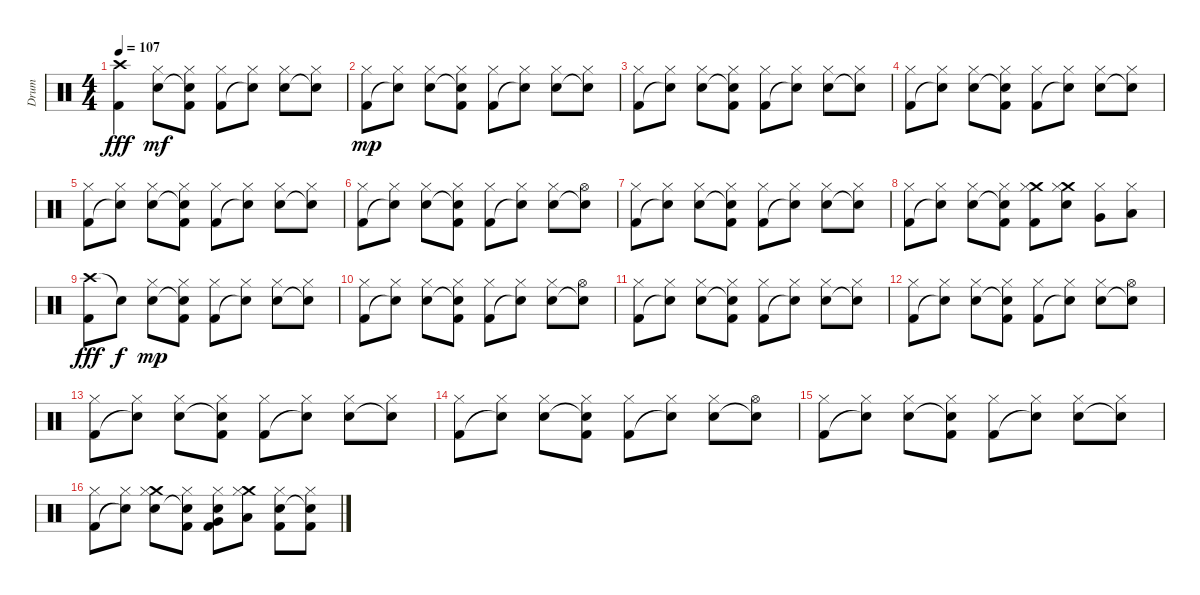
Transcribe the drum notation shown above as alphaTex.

\track ("Drum" "Drum") {instrument percussion}
\staff {score}
\articulation defaults
\ts (4 4)
\section ("" "")
\tempo 107
\clef neutral
\ks c
("Kick (hit) 2" "Crash high (hit)").4{dy fff} ("Electric Snare (hit)" "Hi-Hat (closed)").8{txt "" dy mf} ("Snare (hit)"{t} "Kick (hit) 2" "Hi-Hat (closed)").8 ("Kick (hit) 2" "Hi-Hat (closed)").8 ("Snare (hit)"{t} "Hi-Hat (closed)").8 ("Electric Snare (hit)" "Hi-Hat (closed)").8 ("Snare (hit)"{t} "Hi-Hat (closed)").8 |
("Kick (hit) 2" "Hi-Hat (closed)").8{txt "" dy mp} ("Snare (hit)"{t} "Hi-Hat (closed)").8 ("Electric Snare (hit)" "Hi-Hat (closed)").8 ("Snare (hit)"{t} "Kick (hit) 2" "Hi-Hat (closed)").8 ("Kick (hit) 2" "Hi-Hat (closed)").8 ("Snare (hit)"{t} "Hi-Hat (closed)").8 ("Electric Snare (hit)" "Hi-Hat (closed)").8 ("Snare (hit)"{t} "Hi-Hat (closed)").8 |
("Kick (hit) 2" "Hi-Hat (closed)").8{txt ""} ("Snare (hit)"{t} "Hi-Hat (closed)").8 ("Electric Snare (hit)" "Hi-Hat (closed)").8 ("Snare (hit)"{t} "Kick (hit) 2" "Hi-Hat (closed)").8 ("Kick (hit) 2" "Hi-Hat (closed)").8 ("Snare (hit)"{t} "Hi-Hat (closed)").8 ("Electric Snare (hit)" "Hi-Hat (closed)").8 ("Snare (hit)"{t} "Hi-Hat (closed)").8 |
("Kick (hit) 2" "Hi-Hat (closed)").8{txt ""} ("Snare (hit)"{t} "Hi-Hat (closed)").8 ("Electric Snare (hit)" "Hi-Hat (closed)").8 ("Snare (hit)"{t} "Kick (hit) 2" "Hi-Hat (closed)").8 ("Kick (hit) 2" "Hi-Hat (closed)").8 ("Snare (hit)"{t} "Hi-Hat (closed)").8 ("Electric Snare (hit)" "Hi-Hat (closed)").8 ("Snare (hit)"{t} "Hi-Hat (closed)").8 |
("Kick (hit) 2" "Hi-Hat (closed)").8{txt ""} ("Snare (hit)"{t} "Hi-Hat (closed)").8 ("Electric Snare (hit)" "Hi-Hat (closed)").8 ("Snare (hit)"{t} "Kick (hit) 2" "Hi-Hat (closed)").8 ("Kick (hit) 2" "Hi-Hat (closed)").8 ("Snare (hit)"{t} "Hi-Hat (closed)").8 ("Electric Snare (hit)" "Hi-Hat (closed)").8 ("Snare (hit)"{t} "Hi-Hat (closed)").8 |
("Kick (hit) 2" "Hi-Hat (closed)").8{txt ""} ("Snare (hit)"{t} "Hi-Hat (closed)").8 ("Electric Snare (hit)" "Hi-Hat (closed)").8 ("Snare (hit)"{t} "Kick (hit) 2" "Hi-Hat (closed)").8 ("Kick (hit) 2" "Hi-Hat (closed)").8 ("Snare (hit)"{t} "Hi-Hat (closed)").8 ("Electric Snare (hit)" "Hi-Hat (closed)").8 ("Snare (hit)"{t} "Hi-Hat (open)").8 |
("Kick (hit) 2" "Hi-Hat (closed)").8{txt ""} ("Snare (hit)"{t} "Hi-Hat (closed)").8 ("Electric Snare (hit)" "Hi-Hat (closed)").8 ("Snare (hit)"{t} "Kick (hit) 2" "Hi-Hat (closed)").8 ("Kick (hit) 2" "Hi-Hat (closed)").8 ("Snare (hit)"{t} "Hi-Hat (closed)").8 ("Electric Snare (hit)" "Hi-Hat (closed)").8 ("Snare (hit)"{t} "Hi-Hat (closed)").8 |
("Kick (hit) 2" "Hi-Hat (closed)").8 ("Snare (hit)"{t} "Hi-Hat (closed)").8 ("Electric Snare (hit)" "Hi-Hat (closed)").8 ("Snare (hit)"{t} "Kick (hit) 2" "Hi-Hat (closed)").8 ("Crash medium (hit)" "Kick (hit) 2" "Hi-Hat (closed)").8 ("Crash medium (hit)" "Electric Snare (hit)" "Hi-Hat (closed)").8 ("Hi-Hat (closed)" "Very Low Tom (hit)").8 ("Hi-Hat (closed)" "Low Floor Tom (hit)").8 |
("Crash high (hit)" "Kick (hit) 2").8{txt "" dy fff} "Snare (hit)"{t}.8{dy f} ("Electric Snare (hit)" "Hi-Hat (closed)").8{dy mp} ("Snare (hit)"{t} "Kick (hit) 2" "Hi-Hat (closed)").8 ("Kick (hit) 2" "Hi-Hat (closed)").8 ("Snare (hit)"{t} "Hi-Hat (closed)").8 ("Electric Snare (hit)" "Hi-Hat (closed)").8 ("Snare (hit)"{t} "Hi-Hat (closed)").8 |
("Kick (hit) 2" "Hi-Hat (closed)").8{txt ""} ("Snare (hit)"{t} "Hi-Hat (closed)").8 ("Electric Snare (hit)" "Hi-Hat (closed)").8 ("Snare (hit)"{t} "Kick (hit) 2" "Hi-Hat (closed)").8 ("Kick (hit) 2" "Hi-Hat (closed)").8 ("Snare (hit)"{t} "Hi-Hat (closed)").8 ("Electric Snare (hit)" "Hi-Hat (closed)").8 ("Snare (hit)"{t} "Hi-Hat (open)").8 |
("Kick (hit) 2" "Hi-Hat (closed)").8{txt ""} ("Snare (hit)"{t} "Hi-Hat (closed)").8 ("Electric Snare (hit)" "Hi-Hat (closed)").8 ("Snare (hit)"{t} "Kick (hit) 2" "Hi-Hat (closed)").8 ("Kick (hit) 2" "Hi-Hat (closed)").8 ("Snare (hit)"{t} "Hi-Hat (closed)").8 ("Electric Snare (hit)" "Hi-Hat (closed)").8 ("Snare (hit)"{t} "Hi-Hat (closed)").8 |
("Kick (hit) 2" "Hi-Hat (closed)").8{txt ""} ("Snare (hit)"{t} "Hi-Hat (closed)").8 ("Electric Snare (hit)" "Hi-Hat (closed)").8 ("Snare (hit)"{t} "Kick (hit) 2" "Hi-Hat (closed)").8 ("Kick (hit) 2" "Hi-Hat (closed)").8 ("Snare (hit)"{t} "Hi-Hat (closed)").8 ("Electric Snare (hit)" "Hi-Hat (closed)").8 ("Snare (hit)"{t} "Hi-Hat (open)").8 |
("Kick (hit) 2" "Hi-Hat (closed)").8 ("Snare (hit)"{t} "Hi-Hat (closed)").8 ("Electric Snare (hit)" "Hi-Hat (closed)").8{txt ""} ("Snare (hit)"{t} "Kick (hit) 2" "Hi-Hat (closed)").8 ("Kick (hit) 2" "Hi-Hat (closed)").8 ("Snare (hit)"{t} "Hi-Hat (closed)").8 ("Electric Snare (hit)" "Hi-Hat (closed)").8 ("Snare (hit)"{t} "Hi-Hat (closed)").8 |
("Kick (hit) 2" "Hi-Hat (closed)").8 ("Snare (hit)"{t} "Hi-Hat (closed)").8 ("Electric Snare (hit)" "Hi-Hat (closed)").8 ("Snare (hit)"{t} "Kick (hit) 2" "Hi-Hat (closed)").8{txt ""} ("Kick (hit) 2" "Hi-Hat (closed)").8 ("Snare (hit)"{t} "Hi-Hat (closed)").8 ("Electric Snare (hit)" "Hi-Hat (closed)").8 ("Snare (hit)"{t} "Hi-Hat (open)").8 |
("Kick (hit) 2" "Hi-Hat (closed)").8{txt ""} ("Snare (hit)"{t} "Hi-Hat (closed)").8 ("Electric Snare (hit)" "Hi-Hat (closed)").8 ("Snare (hit)"{t} "Kick (hit) 2" "Hi-Hat (closed)").8 ("Kick (hit) 2" "Hi-Hat (closed)").8 ("Snare (hit)"{t} "Hi-Hat (closed)").8 ("Electric Snare (hit)" "Hi-Hat (closed)").8 ("Snare (hit)"{t} "Hi-Hat (closed)").8 |
("Kick (hit) 2" "Hi-Hat (closed)").8 ("Snare (hit)"{t} "Hi-Hat (closed)").8 ("Electric Snare (hit)" "Crash medium (hit)" "Hi-Hat (closed)").8 ("Snare (hit)"{t} "Kick (hit) 2" "Hi-Hat (closed)").8 ("Electric Snare (hit)" "Kick (hit) 2" "Hi-Hat (closed)" "Very Low Tom (hit)").8 ("Crash medium (hit)" "Hi-Hat (closed)" "Low Floor Tom (hit)").8 ("Electric Snare (hit)" "Kick (hit) 2" "Hi-Hat (closed)").8 ("Snare (hit)"{t} "Kick (hit) 2" "Hi-Hat (closed)").8
